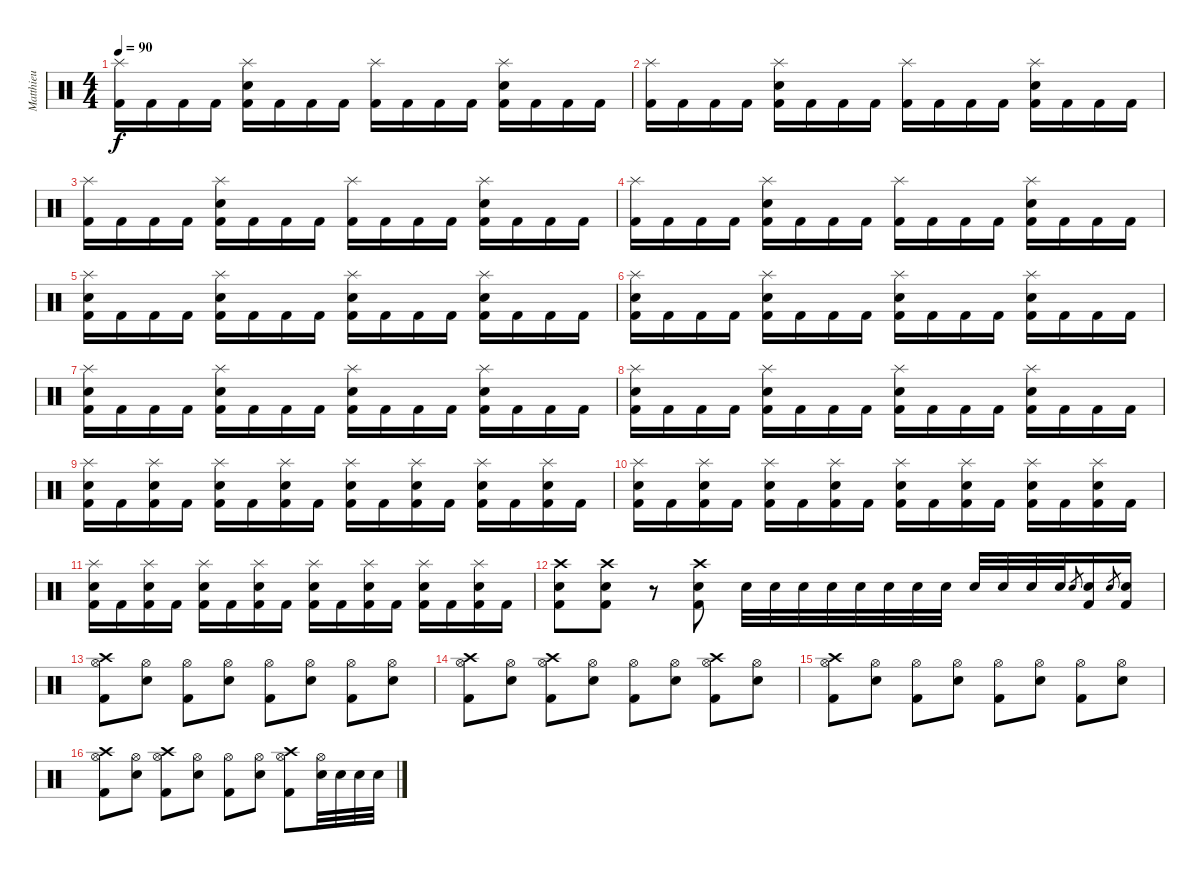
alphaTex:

\track ("Matthieu" "Matthieu") {instrument percussion}
\staff {score}
\articulation defaults
\ts (4 4)
\tempo 90
\clef neutral
\ks c
("Splash (hit)" "Kick (hit) 2").16{dy f} "Kick (hit) 2".16 "Kick (hit) 2".16 "Kick (hit) 2".16 ("Splash (hit)" "Electric Snare (hit)" "Kick (hit) 2").16 "Kick (hit) 2".16 "Kick (hit) 2".16 "Kick (hit) 2".16 ("Splash (hit)" "Kick (hit) 2").16 "Kick (hit) 2".16 "Kick (hit) 2".16 "Kick (hit) 2".16 ("Splash (hit)" "Electric Snare (hit)" "Kick (hit) 2").16 "Kick (hit) 2".16 "Kick (hit) 2".16 "Kick (hit) 2".16 |
("Splash (hit)" "Kick (hit) 2").16 "Kick (hit) 2".16 "Kick (hit) 2".16 "Kick (hit) 2".16 ("Splash (hit)" "Electric Snare (hit)" "Kick (hit) 2").16 "Kick (hit) 2".16 "Kick (hit) 2".16 "Kick (hit) 2".16 ("Splash (hit)" "Kick (hit) 2").16 "Kick (hit) 2".16 "Kick (hit) 2".16 "Kick (hit) 2".16 ("Splash (hit)" "Electric Snare (hit)" "Kick (hit) 2").16 "Kick (hit) 2".16 "Kick (hit) 2".16 "Kick (hit) 2".16 |
("Splash (hit)" "Kick (hit) 2").16 "Kick (hit) 2".16 "Kick (hit) 2".16 "Kick (hit) 2".16 ("Splash (hit)" "Electric Snare (hit)" "Kick (hit) 2").16 "Kick (hit) 2".16 "Kick (hit) 2".16 "Kick (hit) 2".16 ("Splash (hit)" "Kick (hit) 2").16 "Kick (hit) 2".16 "Kick (hit) 2".16 "Kick (hit) 2".16 ("Splash (hit)" "Electric Snare (hit)" "Kick (hit) 2").16 "Kick (hit) 2".16 "Kick (hit) 2".16 "Kick (hit) 2".16 |
("Splash (hit)" "Kick (hit) 2").16 "Kick (hit) 2".16 "Kick (hit) 2".16 "Kick (hit) 2".16 ("Splash (hit)" "Electric Snare (hit)" "Kick (hit) 2").16 "Kick (hit) 2".16 "Kick (hit) 2".16 "Kick (hit) 2".16 ("Splash (hit)" "Kick (hit) 2").16 "Kick (hit) 2".16 "Kick (hit) 2".16 "Kick (hit) 2".16 ("Splash (hit)" "Electric Snare (hit)" "Kick (hit) 2").16 "Kick (hit) 2".16 "Kick (hit) 2".16 "Kick (hit) 2".16 |
("Splash (hit)" "Electric Snare (hit)" "Kick (hit) 2").16 "Kick (hit) 2".16 "Kick (hit) 2".16 "Kick (hit) 2".16 ("Splash (hit)" "Electric Snare (hit)" "Kick (hit) 2").16 "Kick (hit) 2".16 "Kick (hit) 2".16 "Kick (hit) 2".16 ("Splash (hit)" "Electric Snare (hit)" "Kick (hit) 2").16 "Kick (hit) 2".16 "Kick (hit) 2".16 "Kick (hit) 2".16 ("Splash (hit)" "Electric Snare (hit)" "Kick (hit) 2").16 "Kick (hit) 2".16 "Kick (hit) 2".16 "Kick (hit) 2".16 |
("Splash (hit)" "Electric Snare (hit)" "Kick (hit) 2").16 "Kick (hit) 2".16 "Kick (hit) 2".16 "Kick (hit) 2".16 ("Splash (hit)" "Electric Snare (hit)" "Kick (hit) 2").16 "Kick (hit) 2".16 "Kick (hit) 2".16 "Kick (hit) 2".16 ("Splash (hit)" "Electric Snare (hit)" "Kick (hit) 2").16 "Kick (hit) 2".16 "Kick (hit) 2".16 "Kick (hit) 2".16 ("Splash (hit)" "Electric Snare (hit)" "Kick (hit) 2").16 "Kick (hit) 2".16 "Kick (hit) 2".16 "Kick (hit) 2".16 |
("Splash (hit)" "Electric Snare (hit)" "Kick (hit) 2").16 "Kick (hit) 2".16 "Kick (hit) 2".16 "Kick (hit) 2".16 ("Splash (hit)" "Electric Snare (hit)" "Kick (hit) 2").16 "Kick (hit) 2".16 "Kick (hit) 2".16 "Kick (hit) 2".16 ("Splash (hit)" "Electric Snare (hit)" "Kick (hit) 2").16 "Kick (hit) 2".16 "Kick (hit) 2".16 "Kick (hit) 2".16 ("Splash (hit)" "Electric Snare (hit)" "Kick (hit) 2").16 "Kick (hit) 2".16 "Kick (hit) 2".16 "Kick (hit) 2".16 |
("Splash (hit)" "Electric Snare (hit)" "Kick (hit) 2").16 "Kick (hit) 2".16 "Kick (hit) 2".16 "Kick (hit) 2".16 ("Splash (hit)" "Electric Snare (hit)" "Kick (hit) 2").16 "Kick (hit) 2".16 "Kick (hit) 2".16 "Kick (hit) 2".16 ("Splash (hit)" "Electric Snare (hit)" "Kick (hit) 2").16 "Kick (hit) 2".16 "Kick (hit) 2".16 "Kick (hit) 2".16 ("Splash (hit)" "Electric Snare (hit)" "Kick (hit) 2").16 "Kick (hit) 2".16 "Kick (hit) 2".16 "Kick (hit) 2".16 |
("Splash (hit)" "Electric Snare (hit)" "Kick (hit) 2").16 "Kick (hit) 2".16 ("Splash (hit)" "Electric Snare (hit)" "Kick (hit) 2").16 "Kick (hit) 2".16 ("Splash (hit)" "Electric Snare (hit)" "Kick (hit) 2").16 "Kick (hit) 2".16 ("Splash (hit)" "Electric Snare (hit)" "Kick (hit) 2").16 "Kick (hit) 2".16 ("Splash (hit)" "Electric Snare (hit)" "Kick (hit) 2").16 "Kick (hit) 2".16 ("Splash (hit)" "Electric Snare (hit)" "Kick (hit) 2").16 "Kick (hit) 2".16 ("Splash (hit)" "Electric Snare (hit)" "Kick (hit) 2").16 "Kick (hit) 2".16 ("Splash (hit)" "Electric Snare (hit)" "Kick (hit) 2").16 "Kick (hit) 2".16 |
("Splash (hit)" "Electric Snare (hit)" "Kick (hit) 2").16 "Kick (hit) 2".16 ("Splash (hit)" "Electric Snare (hit)" "Kick (hit) 2").16 "Kick (hit) 2".16 ("Splash (hit)" "Electric Snare (hit)" "Kick (hit) 2").16 "Kick (hit) 2".16 ("Splash (hit)" "Electric Snare (hit)" "Kick (hit) 2").16 "Kick (hit) 2".16 ("Splash (hit)" "Electric Snare (hit)" "Kick (hit) 2").16 "Kick (hit) 2".16 ("Splash (hit)" "Electric Snare (hit)" "Kick (hit) 2").16 "Kick (hit) 2".16 ("Splash (hit)" "Electric Snare (hit)" "Kick (hit) 2").16 "Kick (hit) 2".16 ("Splash (hit)" "Electric Snare (hit)" "Kick (hit) 2").16 "Kick (hit) 2".16 |
("Splash (hit)" "Electric Snare (hit)" "Kick (hit) 2").16 "Kick (hit) 2".16 ("Splash (hit)" "Electric Snare (hit)" "Kick (hit) 2").16 "Kick (hit) 2".16 ("Splash (hit)" "Electric Snare (hit)" "Kick (hit) 2").16 "Kick (hit) 2".16 ("Splash (hit)" "Electric Snare (hit)" "Kick (hit) 2").16 "Kick (hit) 2".16 ("Splash (hit)" "Electric Snare (hit)" "Kick (hit) 2").16 "Kick (hit) 2".16 ("Splash (hit)" "Electric Snare (hit)" "Kick (hit) 2").16 "Kick (hit) 2".16 ("Splash (hit)" "Electric Snare (hit)" "Kick (hit) 2").16 "Kick (hit) 2".16 ("Splash (hit)" "Electric Snare (hit)" "Kick (hit) 2").16 "Kick (hit) 2".16 |
("Crash high (hit)" "Electric Snare (hit)" "Kick (hit) 2").8 ("Crash high (hit)" "Electric Snare (hit)" "Kick (hit) 2").8 r.8 ("Crash high (hit)" "Electric Snare (hit)" "Kick (hit) 2").8 "Electric Snare (hit)".32 "Electric Snare (hit)".32 "Electric Snare (hit)".32 "Electric Snare (hit)".32 "Electric Snare (hit)".32 "Electric Snare (hit)".32 "Electric Snare (hit)".32 "Electric Snare (hit)".32 "Electric Snare (hit)".32 "Electric Snare (hit)".32 "Electric Snare (hit)".32 "Electric Snare (hit)".32 "Electric Snare (hit)".8{gr} ("Electric Snare (hit)" "Kick (hit) 2").16 "Electric Snare (hit)".8{gr} ("Electric Snare (hit)" "Kick (hit) 2").16 |
("Crash high (hit)" "Hi-Hat (open)" "Kick (hit) 2").8 ("Hi-Hat (open)" "Electric Snare (hit)").8 ("Hi-Hat (open)" "Kick (hit) 2").8 ("Hi-Hat (open)" "Electric Snare (hit)").8 ("Hi-Hat (open)" "Kick (hit) 2").8 ("Hi-Hat (open)" "Electric Snare (hit)").8 ("Hi-Hat (open)" "Kick (hit) 2").8 ("Hi-Hat (open)" "Electric Snare (hit)").8 |
("Crash high (hit)" "Hi-Hat (open)" "Kick (hit) 2").8 ("Hi-Hat (open)" "Electric Snare (hit)").8 ("Crash high (hit)" "Hi-Hat (open)" "Kick (hit) 2").8 ("Hi-Hat (open)" "Electric Snare (hit)").8 ("Hi-Hat (open)" "Kick (hit) 2").8 ("Hi-Hat (open)" "Electric Snare (hit)").8 ("Crash high (hit)" "Hi-Hat (open)" "Kick (hit) 2").8 ("Hi-Hat (open)" "Electric Snare (hit)").8 |
("Crash high (hit)" "Hi-Hat (open)" "Kick (hit) 2").8 ("Hi-Hat (open)" "Electric Snare (hit)").8 ("Hi-Hat (open)" "Kick (hit) 2").8 ("Hi-Hat (open)" "Electric Snare (hit)").8 ("Hi-Hat (open)" "Kick (hit) 2").8 ("Hi-Hat (open)" "Electric Snare (hit)").8 ("Hi-Hat (open)" "Kick (hit) 2").8 ("Hi-Hat (open)" "Electric Snare (hit)").8 |
("Crash high (hit)" "Hi-Hat (open)" "Kick (hit) 2").8 ("Hi-Hat (open)" "Electric Snare (hit)").8 ("Crash high (hit)" "Hi-Hat (open)" "Kick (hit) 2").8 ("Hi-Hat (open)" "Electric Snare (hit)").8 ("Hi-Hat (open)" "Kick (hit) 2").8 ("Hi-Hat (open)" "Electric Snare (hit)").8 ("Crash high (hit)" "Hi-Hat (open)" "Kick (hit) 2").8 ("Hi-Hat (open)" "Electric Snare (hit)").32 "Electric Snare (hit)".32 "Electric Snare (hit)".32 "Electric Snare (hit)".32
